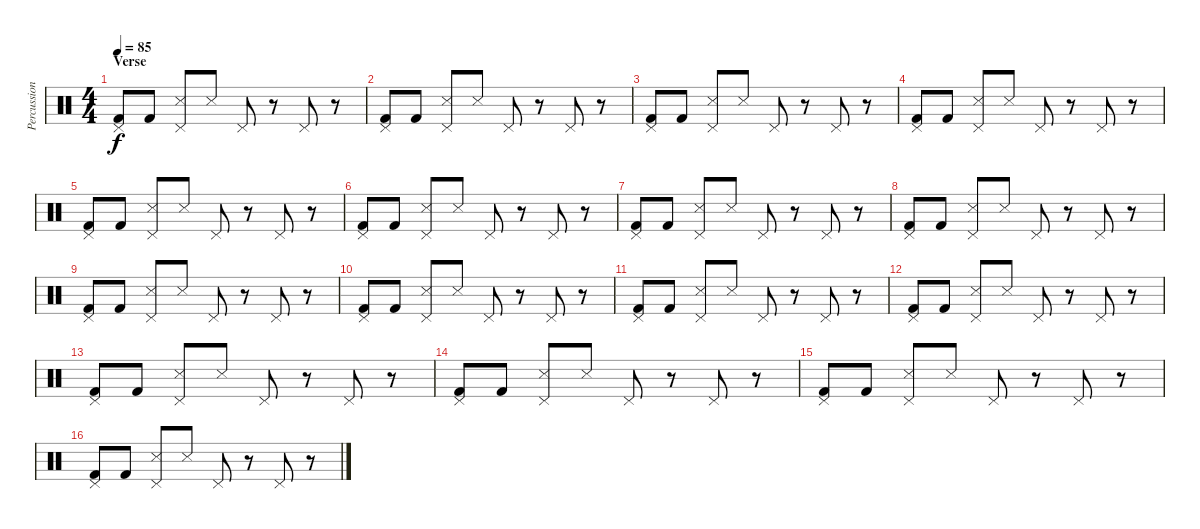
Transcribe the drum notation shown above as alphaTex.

\track ("Percussion . Jeremiah Green" "Percussion") {instrument percussion}
\staff {score}
\articulation defaults
\ts (4 4)
\section ("" "Verse")
\tempo 85
\clef neutral
\ks c
("Pedal Hi-Hat (hit)" "Kick (hit) 2").8{dy f} "Kick (hit) 2".8 ("Pedal Hi-Hat (hit)" "Snare (side stick) 3").8 "Snare (side stick) 3".8 "Pedal Hi-Hat (hit)".8 r.8 "Pedal Hi-Hat (hit)".8 r.8 |
("Pedal Hi-Hat (hit)" "Kick (hit) 2").8 "Kick (hit) 2".8 ("Pedal Hi-Hat (hit)" "Snare (side stick) 3").8 "Snare (side stick) 3".8 "Pedal Hi-Hat (hit)".8 r.8 "Pedal Hi-Hat (hit)".8 r.8 |
("Pedal Hi-Hat (hit)" "Kick (hit) 2").8 "Kick (hit) 2".8 ("Pedal Hi-Hat (hit)" "Snare (side stick) 3").8 "Snare (side stick) 3".8 "Pedal Hi-Hat (hit)".8 r.8 "Pedal Hi-Hat (hit)".8 r.8 |
("Pedal Hi-Hat (hit)" "Kick (hit) 2").8 "Kick (hit) 2".8 ("Pedal Hi-Hat (hit)" "Snare (side stick) 3").8 "Snare (side stick) 3".8 "Pedal Hi-Hat (hit)".8 r.8 "Pedal Hi-Hat (hit)".8 r.8 |
("Pedal Hi-Hat (hit)" "Kick (hit) 2").8 "Kick (hit) 2".8 ("Pedal Hi-Hat (hit)" "Snare (side stick) 3").8 "Snare (side stick) 3".8 "Pedal Hi-Hat (hit)".8 r.8 "Pedal Hi-Hat (hit)".8 r.8 |
("Pedal Hi-Hat (hit)" "Kick (hit) 2").8 "Kick (hit) 2".8 ("Pedal Hi-Hat (hit)" "Snare (side stick) 3").8 "Snare (side stick) 3".8 "Pedal Hi-Hat (hit)".8 r.8 "Pedal Hi-Hat (hit)".8 r.8 |
("Pedal Hi-Hat (hit)" "Kick (hit) 2").8 "Kick (hit) 2".8 ("Pedal Hi-Hat (hit)" "Snare (side stick) 3").8 "Snare (side stick) 3".8 "Pedal Hi-Hat (hit)".8 r.8 "Pedal Hi-Hat (hit)".8 r.8 |
("Pedal Hi-Hat (hit)" "Kick (hit) 2").8 "Kick (hit) 2".8 ("Pedal Hi-Hat (hit)" "Snare (side stick) 3").8 "Snare (side stick) 3".8 "Pedal Hi-Hat (hit)".8 r.8 "Pedal Hi-Hat (hit)".8 r.8 |
("Pedal Hi-Hat (hit)" "Kick (hit) 2").8 "Kick (hit) 2".8 ("Pedal Hi-Hat (hit)" "Snare (side stick) 3").8 "Snare (side stick) 3".8 "Pedal Hi-Hat (hit)".8 r.8 "Pedal Hi-Hat (hit)".8 r.8 |
("Pedal Hi-Hat (hit)" "Kick (hit) 2").8 "Kick (hit) 2".8 ("Pedal Hi-Hat (hit)" "Snare (side stick) 3").8 "Snare (side stick) 3".8 "Pedal Hi-Hat (hit)".8 r.8 "Pedal Hi-Hat (hit)".8 r.8 |
("Pedal Hi-Hat (hit)" "Kick (hit) 2").8 "Kick (hit) 2".8 ("Pedal Hi-Hat (hit)" "Snare (side stick) 3").8 "Snare (side stick) 3".8 "Pedal Hi-Hat (hit)".8 r.8 "Pedal Hi-Hat (hit)".8 r.8 |
("Pedal Hi-Hat (hit)" "Kick (hit) 2").8 "Kick (hit) 2".8 ("Pedal Hi-Hat (hit)" "Snare (side stick) 3").8 "Snare (side stick) 3".8 "Pedal Hi-Hat (hit)".8 r.8 "Pedal Hi-Hat (hit)".8 r.8 |
("Pedal Hi-Hat (hit)" "Kick (hit) 2").8 "Kick (hit) 2".8 ("Pedal Hi-Hat (hit)" "Snare (side stick) 3").8 "Snare (side stick) 3".8 "Pedal Hi-Hat (hit)".8 r.8 "Pedal Hi-Hat (hit)".8 r.8 |
("Pedal Hi-Hat (hit)" "Kick (hit) 2").8 "Kick (hit) 2".8 ("Pedal Hi-Hat (hit)" "Snare (side stick) 3").8 "Snare (side stick) 3".8 "Pedal Hi-Hat (hit)".8 r.8 "Pedal Hi-Hat (hit)".8 r.8 |
("Pedal Hi-Hat (hit)" "Kick (hit) 2").8 "Kick (hit) 2".8 ("Pedal Hi-Hat (hit)" "Snare (side stick) 3").8 "Snare (side stick) 3".8 "Pedal Hi-Hat (hit)".8 r.8 "Pedal Hi-Hat (hit)".8 r.8 |
("Pedal Hi-Hat (hit)" "Kick (hit) 2").8 "Kick (hit) 2".8 ("Pedal Hi-Hat (hit)" "Snare (side stick) 3").8 "Snare (side stick) 3".8 "Pedal Hi-Hat (hit)".8 r.8 "Pedal Hi-Hat (hit)".8 r.8
